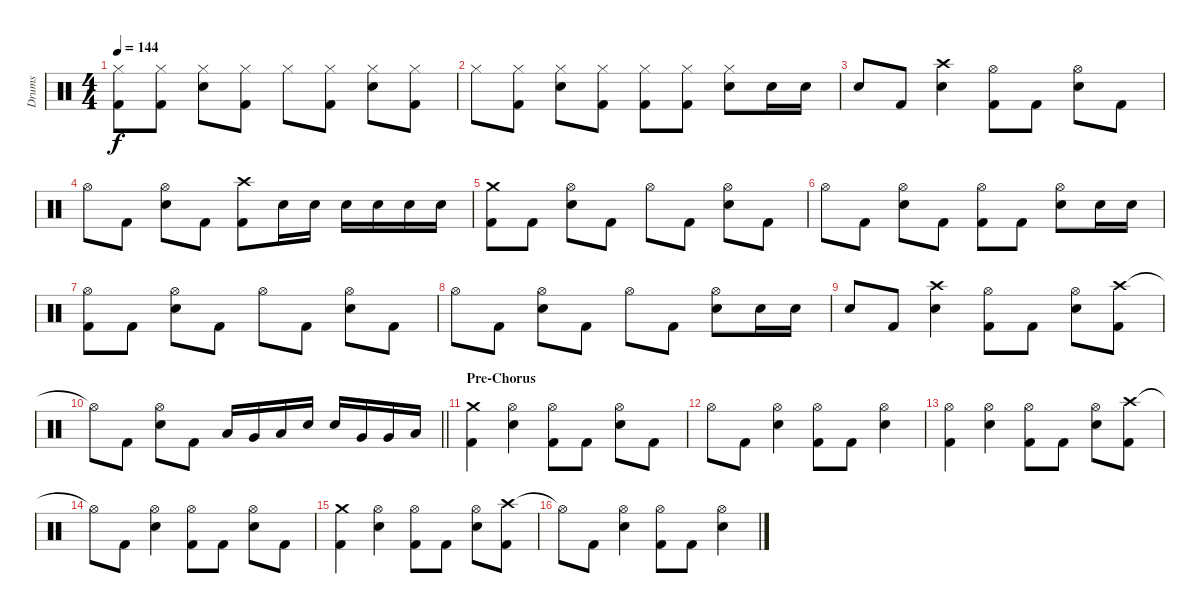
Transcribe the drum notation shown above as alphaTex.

\track ("Drums" "Drums") {instrument percussion}
\staff {score}
\articulation defaults
\ts (4 4)
\tempo 144
\clef neutral
\ks c
("Hi-Hat (closed)" "Kick (hit) 2").8{dy f} ("Hi-Hat (closed)" "Kick (hit) 2").8 ("Hi-Hat (closed)" "Electric Snare (hit)").8 ("Hi-Hat (closed)" "Kick (hit) 2").8 "Hi-Hat (closed)".8 ("Hi-Hat (closed)" "Kick (hit) 2").8 ("Hi-Hat (closed)" "Electric Snare (hit)").8 ("Hi-Hat (closed)" "Kick (hit) 2").8 |
"Hi-Hat (closed)".8 ("Hi-Hat (closed)" "Kick (hit) 2").8 ("Hi-Hat (closed)" "Electric Snare (hit)").8 ("Hi-Hat (closed)" "Kick (hit) 2").8 ("Hi-Hat (closed)" "Kick (hit) 2").8 ("Hi-Hat (closed)" "Kick (hit) 2").8 ("Hi-Hat (closed)" "Electric Snare (hit)").8 "Electric Snare (hit)".16 "Electric Snare (hit)".16 |
"Electric Snare (hit)".8 "Kick (hit) 2".8 ("Crash high (hit)" "Electric Snare (hit)").4 ("Hi-Hat (open)" "Kick (hit) 2").8 "Kick (hit) 2".8 ("Hi-Hat (open)" "Electric Snare (hit)").8 "Kick (hit) 2".8 |
"Hi-Hat (open)".8 "Kick (hit) 2".8 ("Hi-Hat (open)" "Electric Snare (hit)").8 "Kick (hit) 2".8 ("Crash high (hit)" "Kick (hit) 2").8 "Electric Snare (hit)".16 "Electric Snare (hit)".16 "Electric Snare (hit)".16 "Electric Snare (hit)".16 "Electric Snare (hit)".16 "Electric Snare (hit)".16 |
("Crash medium (hit)" "Kick (hit) 2").8 "Kick (hit) 2".8 ("Hi-Hat (open)" "Electric Snare (hit)").8 "Kick (hit) 2".8 "Hi-Hat (open)".8 "Kick (hit) 2".8 ("Hi-Hat (open)" "Electric Snare (hit)").8 "Kick (hit) 2".8 |
"Hi-Hat (open)".8 "Kick (hit) 2".8 ("Hi-Hat (open)" "Electric Snare (hit)").8 "Kick (hit) 2".8 ("Hi-Hat (open)" "Kick (hit) 2").8 "Kick (hit) 2".8 ("Hi-Hat (open)" "Electric Snare (hit)").8 "Electric Snare (hit)".16 "Electric Snare (hit)".16 |
("Hi-Hat (open)" "Kick (hit) 2").8 "Kick (hit) 2".8 ("Hi-Hat (open)" "Electric Snare (hit)").8 "Kick (hit) 2".8 "Hi-Hat (open)".8 "Kick (hit) 2".8 ("Hi-Hat (open)" "Electric Snare (hit)").8 "Kick (hit) 2".8 |
"Hi-Hat (open)".8 "Kick (hit) 2".8 ("Hi-Hat (open)" "Electric Snare (hit)").8 "Kick (hit) 2".8 "Hi-Hat (open)".8 "Kick (hit) 2".8 ("Hi-Hat (open)" "Electric Snare (hit)").8 "Electric Snare (hit)".16 "Electric Snare (hit)".16 |
"Electric Snare (hit)".8 "Kick (hit) 2".8 ("Crash high (hit)" "Electric Snare (hit)").4 ("Hi-Hat (open)" "Kick (hit) 2").8 "Kick (hit) 2".8 ("Hi-Hat (open)" "Electric Snare (hit)").8 ("Crash high (hit)" "Kick (hit) 2").8 |
\barLineRight lightlight "Hi-Hat (open)"{t}.8 "Kick (hit) 2".8
("Hi-Hat (open)" "Electric Snare (hit)").8 "Kick (hit) 2".8 "Low Tom (hit)".16 "Very Low Tom (hit)".16 "Low Tom (hit)".16 "Electric Snare (hit)".16 "Electric Snare (hit)".16 "Very Low Tom (hit)".16 "Very Low Tom (hit)".16 "Low Floor Tom (hit)".16 |
\section ("" "Pre-Chorus")
("Crash medium (hit)" "Kick (hit) 2").4 ("Hi-Hat (open)" "Electric Snare (hit)").4 ("Hi-Hat (open)" "Kick (hit) 2").8 "Kick (hit) 2".8 ("Hi-Hat (open)" "Electric Snare (hit)").8 "Kick (hit) 2".8 |
"Hi-Hat (open)".8 "Kick (hit) 2".8 ("Hi-Hat (open)" "Electric Snare (hit)").4 ("Hi-Hat (open)" "Kick (hit) 2").8 "Kick (hit) 2".8 ("Hi-Hat (open)" "Electric Snare (hit)").4 |
("Hi-Hat (open)" "Kick (hit) 2").4 ("Hi-Hat (open)" "Electric Snare (hit)").4 ("Hi-Hat (open)" "Kick (hit) 2").8 "Kick (hit) 2".8 ("Hi-Hat (open)" "Electric Snare (hit)").8 ("Crash high (hit)" "Kick (hit) 2").8 |
"Hi-Hat (open)"{t}.8 "Kick (hit) 2".8 ("Hi-Hat (open)" "Electric Snare (hit)").4 ("Hi-Hat (open)" "Kick (hit) 2").8 "Kick (hit) 2".8 ("Hi-Hat (open)" "Electric Snare (hit)").8 "Kick (hit) 2".8 |
("Crash medium (hit)" "Kick (hit) 2").4 ("Hi-Hat (open)" "Electric Snare (hit)").4 ("Hi-Hat (open)" "Kick (hit) 2").8 "Kick (hit) 2".8 ("Hi-Hat (open)" "Electric Snare (hit)").8 ("Crash high (hit)" "Kick (hit) 2").8 |
"Hi-Hat (open)"{t}.8 "Kick (hit) 2".8 ("Hi-Hat (open)" "Electric Snare (hit)").4 ("Hi-Hat (open)" "Kick (hit) 2").8 "Kick (hit) 2".8 ("Hi-Hat (open)" "Electric Snare (hit)").4
